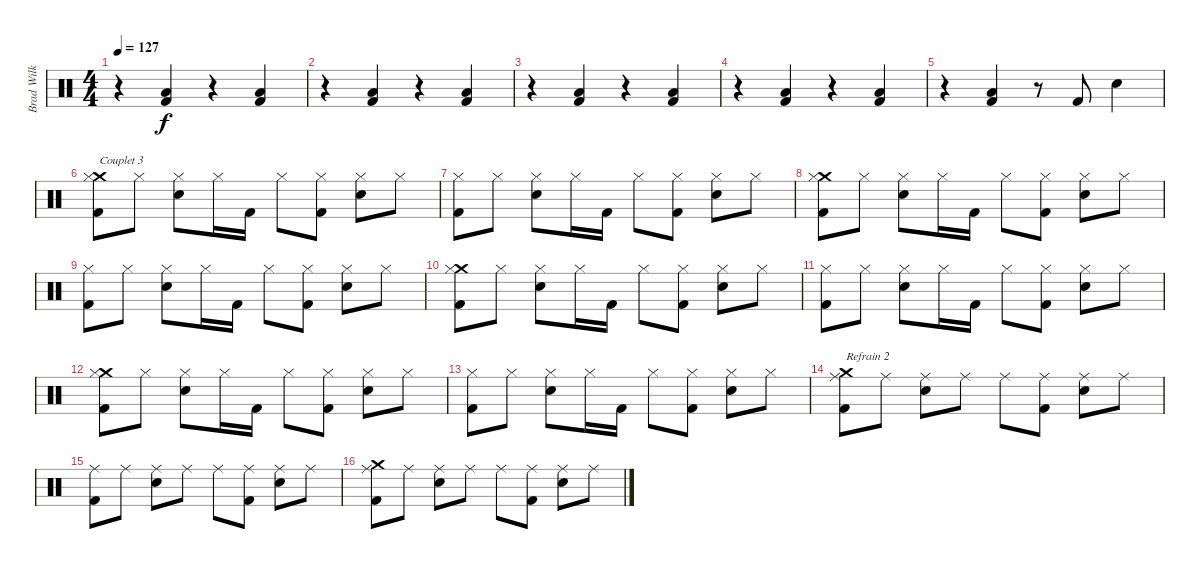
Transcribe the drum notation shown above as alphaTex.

\track ("Brad Wilk" "Brad Wilk") {instrument percussion}
\staff {score}
\articulation defaults
\ts (4 4)
\tempo 127
\clef neutral
\ks c
r.4{dy f} ("Low Floor Tom (hit)" "Kick (hit) 2").4 r.4 ("Low Floor Tom (hit)" "Kick (hit) 2").4 |
r.4 ("Low Floor Tom (hit)" "Kick (hit) 2").4 r.4 ("Low Floor Tom (hit)" "Kick (hit) 2").4 |
r.4 ("Low Floor Tom (hit)" "Kick (hit) 2").4 r.4 ("Low Floor Tom (hit)" "Kick (hit) 2").4 |
r.4 ("Low Floor Tom (hit)" "Kick (hit) 2").4 r.4 ("Low Floor Tom (hit)" "Kick (hit) 2").4 |
r.4 ("Low Floor Tom (hit)" "Kick (hit) 2").4 r.8 "Kick (hit) 2".8 "Electric Snare (hit)".4 |
("Crash medium (hit)" "Hi-Hat (closed)" "Kick (hit) 2").8{txt "Couplet 3"} "Hi-Hat (closed)".8 ("Electric Snare (hit)" "Hi-Hat (closed)").8 "Hi-Hat (closed)".16 "Kick (hit) 2".16 "Hi-Hat (closed)".8 ("Hi-Hat (closed)" "Kick (hit) 2").8 ("Electric Snare (hit)" "Hi-Hat (closed)").8 "Hi-Hat (closed)".8 |
("Hi-Hat (closed)" "Kick (hit) 2").8 "Hi-Hat (closed)".8 ("Electric Snare (hit)" "Hi-Hat (closed)").8 "Hi-Hat (closed)".16 "Kick (hit) 2".16 "Hi-Hat (closed)".8 ("Hi-Hat (closed)" "Kick (hit) 2").8 ("Electric Snare (hit)" "Hi-Hat (closed)").8 "Hi-Hat (closed)".8 |
("Crash medium (hit)" "Hi-Hat (closed)" "Kick (hit) 2").8 "Hi-Hat (closed)".8 ("Electric Snare (hit)" "Hi-Hat (closed)").8 "Hi-Hat (closed)".16 "Kick (hit) 2".16 "Hi-Hat (closed)".8 ("Hi-Hat (closed)" "Kick (hit) 2").8 ("Electric Snare (hit)" "Hi-Hat (closed)").8 "Hi-Hat (closed)".8 |
("Hi-Hat (closed)" "Kick (hit) 2").8 "Hi-Hat (closed)".8 ("Electric Snare (hit)" "Hi-Hat (closed)").8 "Hi-Hat (closed)".16 "Kick (hit) 2".16 "Hi-Hat (closed)".8 ("Hi-Hat (closed)" "Kick (hit) 2").8 ("Electric Snare (hit)" "Hi-Hat (closed)").8 "Hi-Hat (closed)".8 |
("Crash medium (hit)" "Hi-Hat (closed)" "Kick (hit) 2").8 "Hi-Hat (closed)".8 ("Electric Snare (hit)" "Hi-Hat (closed)").8 "Hi-Hat (closed)".16 "Kick (hit) 2".16 "Hi-Hat (closed)".8 ("Hi-Hat (closed)" "Kick (hit) 2").8 ("Electric Snare (hit)" "Hi-Hat (closed)").8 "Hi-Hat (closed)".8 |
("Hi-Hat (closed)" "Kick (hit) 2").8 "Hi-Hat (closed)".8 ("Electric Snare (hit)" "Hi-Hat (closed)").8 "Hi-Hat (closed)".16 "Kick (hit) 2".16 "Hi-Hat (closed)".8 ("Hi-Hat (closed)" "Kick (hit) 2").8 ("Electric Snare (hit)" "Hi-Hat (closed)").8 "Hi-Hat (closed)".8 |
("Crash medium (hit)" "Hi-Hat (closed)" "Kick (hit) 2").8 "Hi-Hat (closed)".8 ("Electric Snare (hit)" "Hi-Hat (closed)").8 "Hi-Hat (closed)".16 "Kick (hit) 2".16 "Hi-Hat (closed)".8 ("Hi-Hat (closed)" "Kick (hit) 2").8 ("Electric Snare (hit)" "Hi-Hat (closed)").8 "Hi-Hat (closed)".8 |
("Hi-Hat (closed)" "Kick (hit) 2").8 "Hi-Hat (closed)".8 ("Electric Snare (hit)" "Hi-Hat (closed)").8 "Hi-Hat (closed)".16 "Kick (hit) 2".16 "Hi-Hat (closed)".8 ("Hi-Hat (closed)" "Kick (hit) 2").8 ("Electric Snare (hit)" "Hi-Hat (closed)").8 "Hi-Hat (closed)".8 |
("Crash medium (hit)" "Ride (middle)" "Kick (hit) 2").8{txt "Refrain 2"} "Ride (middle)".8 ("Electric Snare (hit)" "Ride (middle)").8 "Ride (middle)".8 "Ride (middle)".8 ("Ride (middle)" "Kick (hit) 2").8 ("Electric Snare (hit)" "Ride (middle)").8 "Ride (middle)".8 |
("Ride (middle)" "Kick (hit) 2").8 "Ride (middle)".8 ("Electric Snare (hit)" "Ride (middle)").8 "Ride (middle)".8 "Ride (middle)".8 ("Ride (middle)" "Kick (hit) 2").8 ("Electric Snare (hit)" "Ride (middle)").8 "Ride (middle)".8 |
("Crash medium (hit)" "Ride (middle)" "Kick (hit) 2").8 "Ride (middle)".8 ("Electric Snare (hit)" "Ride (middle)").8 "Ride (middle)".8 "Ride (middle)".8 ("Ride (middle)" "Kick (hit) 2").8 ("Electric Snare (hit)" "Ride (middle)").8 "Ride (middle)".8
